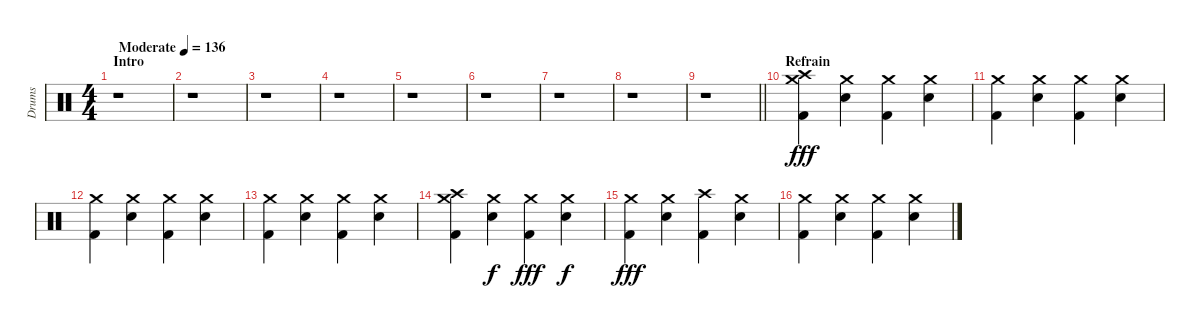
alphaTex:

\track ("Drums" "Drums") {instrument percussion}
\staff {score}
\articulation defaults
\ts (4 4)
\section ("" "Intro")
\tempo (136 "Moderate")
\clef neutral
\ks c
r.1{dy fff} |
r.1 |
r.1 |
r.1 |
r.1 |
r.1 |
r.1 |
r.1 |
\barLineRight lightlight
r.1 |
\section ("" "Refrain")
("Crash medium (hit)" "Crash high (hit)" "Kick (hit) 2").4 ("Crash medium (hit)" "Electric Snare (hit)").4 ("Crash medium (hit)" "Kick (hit) 2").4 ("Crash medium (hit)" "Electric Snare (hit)").4 |
("Crash medium (hit)" "Kick (hit) 2").4 ("Crash medium (hit)" "Electric Snare (hit)").4 ("Crash medium (hit)" "Kick (hit) 2").4 ("Crash medium (hit)" "Electric Snare (hit)").4 |
("Crash medium (hit)" "Kick (hit) 2").4 ("Crash medium (hit)" "Electric Snare (hit)").4 ("Crash medium (hit)" "Kick (hit) 2").4 ("Crash medium (hit)" "Electric Snare (hit)").4 |
("Crash medium (hit)" "Kick (hit) 2").4 ("Crash medium (hit)" "Electric Snare (hit)").4 ("Crash medium (hit)" "Kick (hit) 2").4 ("Crash medium (hit)" "Electric Snare (hit)").4 |
("Crash medium (hit)" "Crash high (hit)" "Kick (hit) 2").4 ("Crash medium (hit)" "Electric Snare (hit)").4{dy f} ("Crash medium (hit)" "Kick (hit) 2").4{dy fff} ("Crash medium (hit)" "Electric Snare (hit)").4{dy f} |
("Crash medium (hit)" "Kick (hit) 2").4{dy fff} ("Crash medium (hit)" "Electric Snare (hit)").4 ("Crash high (hit)" "Kick (hit) 2").4 ("Crash medium (hit)" "Electric Snare (hit)").4 |
("Crash medium (hit)" "Kick (hit) 2").4 ("Crash medium (hit)" "Electric Snare (hit)").4 ("Crash medium (hit)" "Kick (hit) 2").4 ("Crash medium (hit)" "Electric Snare (hit)").4
